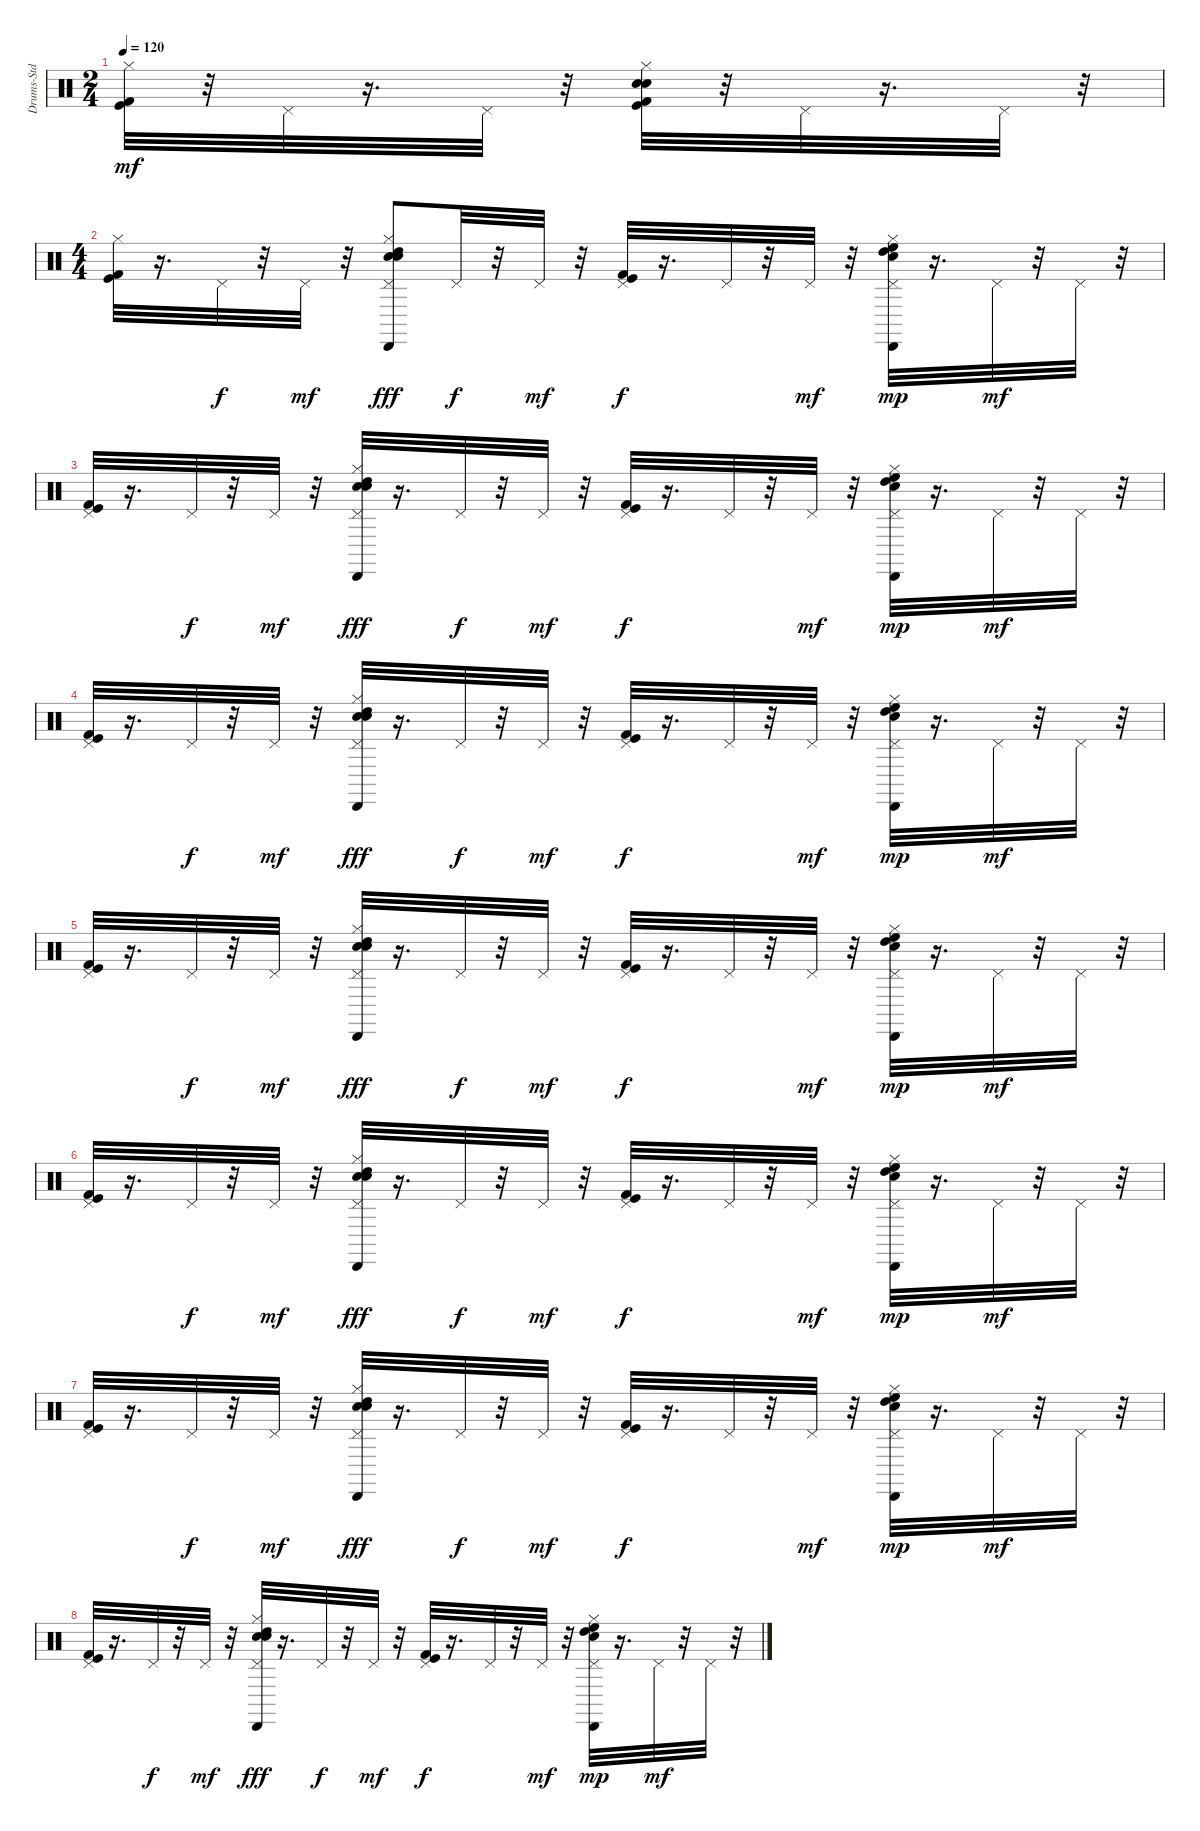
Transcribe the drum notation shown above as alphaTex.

\track ("Drums-Std" "Drums-Std") {instrument percussion}
\staff {score}
\articulation defaults
\ts (2 4)
\tempo 120
\clef neutral
\ks c
("Hi-Hat (closed)" "Kick (hit) 2" "Kick (hit)").32{dy mf} r.32 "Pedal Hi-Hat (hit)".32 r.16{d} "Pedal Hi-Hat (hit)".32 r.32 ("Electric Snare (hit)" "Snare (hit) 2" "Hi-Hat (closed)" "Kick (hit) 2" "Kick (hit)").32 r.32 "Pedal Hi-Hat (hit)".32 r.16{d} "Pedal Hi-Hat (hit)".32 r.32 |
\ts (4 4)
("Hi-Hat (closed)" "Kick (hit) 2" "Kick (hit)").32 r.16{d} "Pedal Hi-Hat (hit)".32{dy f} r.32 "Pedal Hi-Hat (hit)".32{dy mf} r.32 ("Snare (hit) 2" "High Tom (hit)" "Cabasa (hit)" "Hi-Hat (closed)" "Pedal Hi-Hat (hit)" "Electric Snare (hit)").8{dy fff} "Pedal Hi-Hat (hit)".32{dy f} r.32 "Pedal Hi-Hat (hit)".32{dy mf} r.32 ("Pedal Hi-Hat (hit)" "Kick (hit) 2" "Kick (hit)").32{dy f} r.16{d} "Pedal Hi-Hat (hit)".32 r.32 "Pedal Hi-Hat (hit)".32{dy mf} r.32 ("Snare (hit) 2" "High Floor Tom (hit)" "High Tom (hit)" "Cabasa (hit)" "Hi-Hat (closed)" "Pedal Hi-Hat (hit)").32{dy mp} r.16{d} "Pedal Hi-Hat (hit)".32{dy mf} r.32 "Pedal Hi-Hat (hit)".32 r.32 |
("Pedal Hi-Hat (hit)" "Kick (hit) 2" "Kick (hit)").32 r.16{d} "Pedal Hi-Hat (hit)".32{dy f} r.32 "Pedal Hi-Hat (hit)".32{dy mf} r.32 ("Snare (hit) 2" "High Tom (hit)" "Cabasa (hit)" "Hi-Hat (closed)" "Pedal Hi-Hat (hit)" "Electric Snare (hit)").32{dy fff} r.16{d} "Pedal Hi-Hat (hit)".32{dy f} r.32 "Pedal Hi-Hat (hit)".32{dy mf} r.32 ("Pedal Hi-Hat (hit)" "Kick (hit) 2" "Kick (hit)").32{dy f} r.16{d} "Pedal Hi-Hat (hit)".32 r.32 "Pedal Hi-Hat (hit)".32{dy mf} r.32 ("Snare (hit) 2" "High Floor Tom (hit)" "High Tom (hit)" "Cabasa (hit)" "Hi-Hat (closed)" "Pedal Hi-Hat (hit)").32{dy mp} r.16{d} "Pedal Hi-Hat (hit)".32{dy mf} r.32 "Pedal Hi-Hat (hit)".32 r.32 |
("Pedal Hi-Hat (hit)" "Kick (hit) 2" "Kick (hit)").32 r.16{d} "Pedal Hi-Hat (hit)".32{dy f} r.32 "Pedal Hi-Hat (hit)".32{dy mf} r.32 ("Snare (hit) 2" "High Tom (hit)" "Cabasa (hit)" "Hi-Hat (closed)" "Pedal Hi-Hat (hit)" "Electric Snare (hit)").32{dy fff} r.16{d} "Pedal Hi-Hat (hit)".32{dy f} r.32 "Pedal Hi-Hat (hit)".32{dy mf} r.32 ("Pedal Hi-Hat (hit)" "Kick (hit) 2" "Kick (hit)").32{dy f} r.16{d} "Pedal Hi-Hat (hit)".32 r.32 "Pedal Hi-Hat (hit)".32{dy mf} r.32 ("Snare (hit) 2" "High Floor Tom (hit)" "High Tom (hit)" "Cabasa (hit)" "Hi-Hat (closed)" "Pedal Hi-Hat (hit)").32{dy mp} r.16{d} "Pedal Hi-Hat (hit)".32{dy mf} r.32 "Pedal Hi-Hat (hit)".32 r.32 |
("Pedal Hi-Hat (hit)" "Kick (hit) 2" "Kick (hit)").32 r.16{d} "Pedal Hi-Hat (hit)".32{dy f} r.32 "Pedal Hi-Hat (hit)".32{dy mf} r.32 ("Snare (hit) 2" "High Tom (hit)" "Cabasa (hit)" "Hi-Hat (closed)" "Pedal Hi-Hat (hit)" "Electric Snare (hit)").32{dy fff} r.16{d} "Pedal Hi-Hat (hit)".32{dy f} r.32 "Pedal Hi-Hat (hit)".32{dy mf} r.32 ("Pedal Hi-Hat (hit)" "Kick (hit) 2" "Kick (hit)").32{dy f} r.16{d} "Pedal Hi-Hat (hit)".32 r.32 "Pedal Hi-Hat (hit)".32{dy mf} r.32 ("Snare (hit) 2" "High Floor Tom (hit)" "High Tom (hit)" "Cabasa (hit)" "Hi-Hat (closed)" "Pedal Hi-Hat (hit)").32{dy mp} r.16{d} "Pedal Hi-Hat (hit)".32{dy mf} r.32 "Pedal Hi-Hat (hit)".32 r.32 |
("Pedal Hi-Hat (hit)" "Kick (hit) 2" "Kick (hit)").32 r.16{d} "Pedal Hi-Hat (hit)".32{dy f} r.32 "Pedal Hi-Hat (hit)".32{dy mf} r.32 ("Snare (hit) 2" "High Tom (hit)" "Cabasa (hit)" "Hi-Hat (closed)" "Pedal Hi-Hat (hit)" "Electric Snare (hit)").32{dy fff} r.16{d} "Pedal Hi-Hat (hit)".32{dy f} r.32 "Pedal Hi-Hat (hit)".32{dy mf} r.32 ("Pedal Hi-Hat (hit)" "Kick (hit) 2" "Kick (hit)").32{dy f} r.16{d} "Pedal Hi-Hat (hit)".32 r.32 "Pedal Hi-Hat (hit)".32{dy mf} r.32 ("Snare (hit) 2" "High Floor Tom (hit)" "High Tom (hit)" "Cabasa (hit)" "Hi-Hat (closed)" "Pedal Hi-Hat (hit)").32{dy mp} r.16{d} "Pedal Hi-Hat (hit)".32{dy mf} r.32 "Pedal Hi-Hat (hit)".32 r.32 |
("Pedal Hi-Hat (hit)" "Kick (hit) 2" "Kick (hit)").32 r.16{d} "Pedal Hi-Hat (hit)".32{dy f} r.32 "Pedal Hi-Hat (hit)".32{dy mf} r.32 ("Snare (hit) 2" "High Tom (hit)" "Cabasa (hit)" "Hi-Hat (closed)" "Pedal Hi-Hat (hit)" "Electric Snare (hit)").32{dy fff} r.16{d} "Pedal Hi-Hat (hit)".32{dy f} r.32 "Pedal Hi-Hat (hit)".32{dy mf} r.32 ("Pedal Hi-Hat (hit)" "Kick (hit) 2" "Kick (hit)").32{dy f} r.16{d} "Pedal Hi-Hat (hit)".32 r.32 "Pedal Hi-Hat (hit)".32{dy mf} r.32 ("Snare (hit) 2" "High Floor Tom (hit)" "High Tom (hit)" "Cabasa (hit)" "Hi-Hat (closed)" "Pedal Hi-Hat (hit)").32{dy mp} r.16{d} "Pedal Hi-Hat (hit)".32{dy mf} r.32 "Pedal Hi-Hat (hit)".32 r.32 |
("Pedal Hi-Hat (hit)" "Kick (hit) 2" "Kick (hit)").32 r.16{d} "Pedal Hi-Hat (hit)".32{dy f} r.32 "Pedal Hi-Hat (hit)".32{dy mf} r.32 ("Snare (hit) 2" "High Tom (hit)" "Cabasa (hit)" "Hi-Hat (closed)" "Pedal Hi-Hat (hit)" "Electric Snare (hit)").32{dy fff} r.16{d} "Pedal Hi-Hat (hit)".32{dy f} r.32 "Pedal Hi-Hat (hit)".32{dy mf} r.32 ("Pedal Hi-Hat (hit)" "Kick (hit) 2" "Kick (hit)").32{dy f} r.16{d} "Pedal Hi-Hat (hit)".32 r.32 "Pedal Hi-Hat (hit)".32{dy mf} r.32 ("Snare (hit) 2" "High Floor Tom (hit)" "High Tom (hit)" "Cabasa (hit)" "Hi-Hat (closed)" "Pedal Hi-Hat (hit)").32{dy mp} r.16{d} "Pedal Hi-Hat (hit)".32{dy mf} r.32 "Pedal Hi-Hat (hit)".32 r.32
